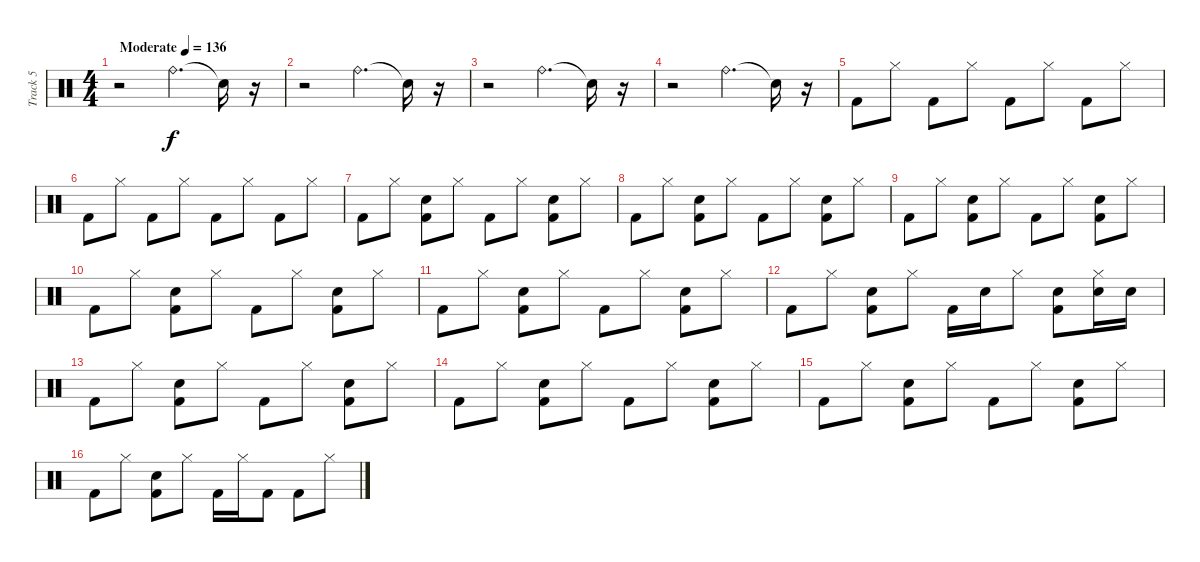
\track ("Track 5" "Track 5") {instrument percussion}
\staff {score}
\articulation defaults
\ts (4 4)
\tempo (136 "Moderate")
\clef neutral
\ks c
r.2{dy f} "Ride (bell)".4{d} "Snare (hit)"{t}.16 r.16 |
r.2 "Ride (bell)".4{d} "Snare (hit)"{t}.16 r.16 |
r.2 "Ride (bell)".4{d} "Snare (hit)"{t}.16 r.16 |
r.2 "Ride (bell)".4{d} "Snare (hit)"{t}.16 r.16 |
"Kick (hit) 2".8 "Hi-Hat (closed)".8 "Kick (hit) 2".8 "Hi-Hat (closed)".8 "Kick (hit) 2".8 "Hi-Hat (closed)".8 "Kick (hit) 2".8 "Hi-Hat (closed)".8 |
"Kick (hit) 2".8 "Hi-Hat (closed)".8 "Kick (hit) 2".8 "Hi-Hat (closed)".8 "Kick (hit) 2".8 "Hi-Hat (closed)".8 "Kick (hit) 2".8 "Hi-Hat (closed)".8 |
"Kick (hit) 2".8 "Hi-Hat (closed)".8 ("Kick (hit) 2" "Hand Clap (hit)").8 "Hi-Hat (closed)".8 "Kick (hit) 2".8 "Hi-Hat (closed)".8 ("Kick (hit) 2" "Hand Clap (hit)").8 "Hi-Hat (closed)".8 |
"Kick (hit) 2".8 "Hi-Hat (closed)".8 ("Kick (hit) 2" "Hand Clap (hit)").8 "Hi-Hat (closed)".8 "Kick (hit) 2".8 "Hi-Hat (closed)".8 ("Kick (hit) 2" "Hand Clap (hit)").8 "Hi-Hat (closed)".8 |
"Kick (hit) 2".8 "Hi-Hat (closed)".8 ("Kick (hit) 2" "Hand Clap (hit)").8 "Hi-Hat (closed)".8 "Kick (hit) 2".8 "Hi-Hat (closed)".8 ("Kick (hit) 2" "Hand Clap (hit)").8 "Hi-Hat (closed)".8 |
"Kick (hit) 2".8 "Hi-Hat (closed)".8 ("Kick (hit) 2" "Hand Clap (hit)").8 "Hi-Hat (closed)".8 "Kick (hit) 2".8 "Hi-Hat (closed)".8 ("Kick (hit) 2" "Hand Clap (hit)").8 "Hi-Hat (closed)".8 |
"Kick (hit) 2".8 "Hi-Hat (closed)".8 ("Kick (hit) 2" "Hand Clap (hit)").8 "Hi-Hat (closed)".8 "Kick (hit) 2".8 "Hi-Hat (closed)".8 ("Kick (hit) 2" "Hand Clap (hit)").8 "Hi-Hat (closed)".8 |
"Kick (hit) 2".8 "Hi-Hat (closed)".8 ("Kick (hit) 2" "Hand Clap (hit)").8 "Hi-Hat (closed)".8 "Kick (hit) 2".16 "Hand Clap (hit)".16 "Hi-Hat (closed)".8 ("Kick (hit) 2" "Hand Clap (hit)").8 ("Hand Clap (hit)" "Hi-Hat (closed)").16 "Hand Clap (hit)".16 |
"Kick (hit) 2".8 "Hi-Hat (closed)".8 ("Kick (hit) 2" "Hand Clap (hit)").8 "Hi-Hat (closed)".8 "Kick (hit) 2".8 "Hi-Hat (closed)".8 ("Kick (hit) 2" "Hand Clap (hit)").8 "Hi-Hat (closed)".8 |
"Kick (hit) 2".8 "Hi-Hat (closed)".8 ("Kick (hit) 2" "Hand Clap (hit)").8 "Hi-Hat (closed)".8 "Kick (hit) 2".8 "Hi-Hat (closed)".8 ("Kick (hit) 2" "Hand Clap (hit)").8 "Hi-Hat (closed)".8 |
"Kick (hit) 2".8 "Hi-Hat (closed)".8 ("Kick (hit) 2" "Hand Clap (hit)").8 "Hi-Hat (closed)".8 "Kick (hit) 2".8 "Hi-Hat (closed)".8 ("Kick (hit) 2" "Hand Clap (hit)").8 "Hi-Hat (closed)".8 |
"Kick (hit) 2".8 "Hi-Hat (closed)".8 ("Kick (hit) 2" "Hand Clap (hit)").8 "Hi-Hat (closed)".8 "Kick (hit) 2".16 "Hi-Hat (closed)".16 "Kick (hit) 2".8 "Kick (hit) 2".8 "Hi-Hat (closed)".8
